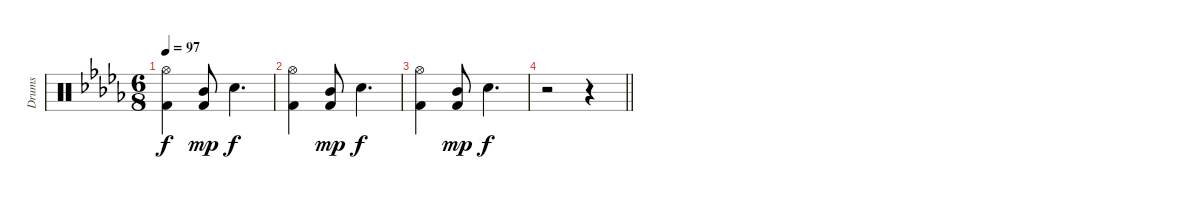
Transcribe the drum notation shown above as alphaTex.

\track ("Drums" "Drums") {instrument percussion}
\staff {score}
\articulation defaults
\ts (6 8)
\tempo 97
\clef neutral
\ks db
("Kick (hit) 2" "Hi-Hat (open)").4{dy f} ("Mid Tom (hit)" "Kick (hit) 2").8{dy mp} "Electric Snare (hit)".4{d dy f} |
("Kick (hit) 2" "Hi-Hat (open)").4 ("Mid Tom (hit)" "Kick (hit) 2").8{dy mp} "Electric Snare (hit)".4{d dy f} |
("Kick (hit) 2" "Hi-Hat (open)").4 ("Mid Tom (hit)" "Kick (hit) 2").8{dy mp} "Electric Snare (hit)".4{d dy f} |
\barLineRight lightlight
r.2 r.4
